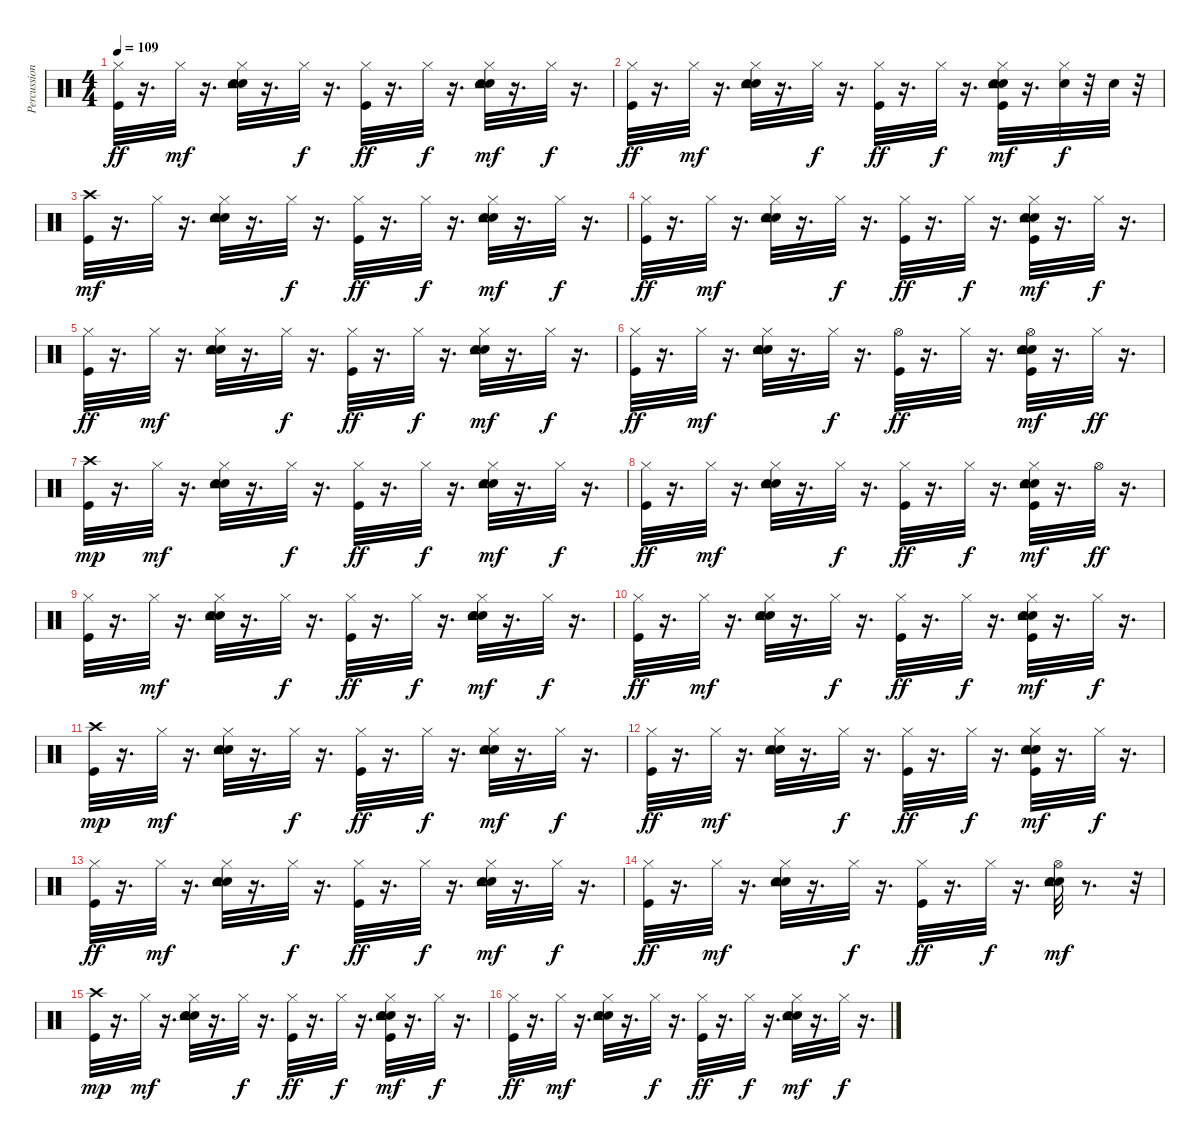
\track ("Percussion" "Percussion") {instrument percussion}
\staff {score}
\articulation defaults
\ts (4 4)
\tempo 109
\clef neutral
\ks c
("Kick (hit)" "Hi-Hat (closed)").32{dy ff} r.16{d} "Hi-Hat (closed)".32{dy mf} r.16{d} ("Snare (hit) 2" "Hand Clap (hit)" "Hi-Hat (closed)" "Tambourine (hit)").32 r.16{d} "Hi-Hat (closed)".32{dy f} r.16{d} ("Kick (hit)" "Hi-Hat (closed)").32{dy ff} r.16{d} "Hi-Hat (closed)".32{dy f} r.16{d} ("Snare (hit) 2" "Hand Clap (hit)" "Hi-Hat (closed)" "Tambourine (hit)").32{dy mf} r.16{d} "Hi-Hat (closed)".32{dy f} r.16{d} |
("Kick (hit)" "Hi-Hat (closed)").32{dy ff} r.16{d} "Hi-Hat (closed)".32{dy mf} r.16{d} ("Snare (hit) 2" "Hand Clap (hit)" "Hi-Hat (closed)" "Tambourine (hit)").32 r.16{d} "Hi-Hat (closed)".32{dy f} r.16{d} ("Kick (hit)" "Hi-Hat (closed)").32{dy ff} r.16{d} "Hi-Hat (closed)".32{dy f} r.16{d} ("Kick (hit)" "Snare (hit) 2" "Hand Clap (hit)" "Hi-Hat (closed)" "Tambourine (hit)").32{dy mf} r.16{d} ("Snare (hit) 2" "Hi-Hat (closed)").32{dy f} r.32 "Snare (hit) 2".32 r.32 |
("Kick (hit)" "Crash high (hit)").32{dy mf} r.16{d} "Hi-Hat (closed)".32 r.16{d} ("Snare (hit) 2" "Hand Clap (hit)" "Hi-Hat (closed)" "Tambourine (hit)").32 r.16{d} "Hi-Hat (closed)".32{dy f} r.16{d} ("Kick (hit)" "Hi-Hat (closed)").32{dy ff} r.16{d} "Hi-Hat (closed)".32{dy f} r.16{d} ("Snare (hit) 2" "Hand Clap (hit)" "Hi-Hat (closed)" "Tambourine (hit)").32{dy mf} r.16{d} "Hi-Hat (closed)".32{dy f} r.16{d} |
("Kick (hit)" "Hi-Hat (closed)").32{dy ff} r.16{d} "Hi-Hat (closed)".32{dy mf} r.16{d} ("Snare (hit) 2" "Hand Clap (hit)" "Hi-Hat (closed)" "Tambourine (hit)").32 r.16{d} "Hi-Hat (closed)".32{dy f} r.16{d} ("Kick (hit)" "Hi-Hat (closed)").32{dy ff} r.16{d} "Hi-Hat (closed)".32{dy f} r.16{d} ("Kick (hit)" "Snare (hit) 2" "Hand Clap (hit)" "Hi-Hat (closed)" "Tambourine (hit)").32{dy mf} r.16{d} "Hi-Hat (closed)".32{dy f} r.16{d} |
("Kick (hit)" "Hi-Hat (closed)").32{dy ff} r.16{d} "Hi-Hat (closed)".32{dy mf} r.16{d} ("Snare (hit) 2" "Hand Clap (hit)" "Hi-Hat (closed)" "Tambourine (hit)").32 r.16{d} "Hi-Hat (closed)".32{dy f} r.16{d} ("Kick (hit)" "Hi-Hat (closed)").32{dy ff} r.16{d} "Hi-Hat (closed)".32{dy f} r.16{d} ("Snare (hit) 2" "Hand Clap (hit)" "Hi-Hat (closed)" "Tambourine (hit)").32{dy mf} r.16{d} "Hi-Hat (closed)".32{dy f} r.16{d} |
("Kick (hit)" "Hi-Hat (closed)").32{dy ff} r.16{d} "Hi-Hat (closed)".32{dy mf} r.16{d} ("Snare (hit) 2" "Hand Clap (hit)" "Hi-Hat (closed)" "Tambourine (hit)").32 r.16{d} "Hi-Hat (closed)".32{dy f} r.16{d} ("Kick (hit)" "Hi-Hat (open)").32{dy ff} r.16{d} "Hi-Hat (closed)".32 r.16{d} ("Kick (hit)" "Snare (hit) 2" "Hand Clap (hit)" "Hi-Hat (open)" "Tambourine (hit)").32{dy mf} r.16{d} "Hi-Hat (closed)".32{dy ff} r.16{d} |
("Kick (hit)" "Crash high (hit)").32{dy mp} r.16{d} "Hi-Hat (closed)".32{dy mf} r.16{d} ("Snare (hit) 2" "Hand Clap (hit)" "Hi-Hat (closed)" "Tambourine (hit)").32 r.16{d} "Hi-Hat (closed)".32{dy f} r.16{d} ("Kick (hit)" "Hi-Hat (closed)").32{dy ff} r.16{d} "Hi-Hat (closed)".32{dy f} r.16{d} ("Snare (hit) 2" "Hand Clap (hit)" "Hi-Hat (closed)" "Tambourine (hit)").32{dy mf} r.16{d} "Hi-Hat (closed)".32{dy f} r.16{d} |
("Kick (hit)" "Hi-Hat (closed)").32{dy ff} r.16{d} "Hi-Hat (closed)".32{dy mf} r.16{d} ("Snare (hit) 2" "Hand Clap (hit)" "Hi-Hat (closed)" "Tambourine (hit)").32 r.16{d} "Hi-Hat (closed)".32{dy f} r.16{d} ("Kick (hit)" "Hi-Hat (closed)").32{dy ff} r.16{d} "Hi-Hat (closed)".32{dy f} r.16{d} ("Kick (hit)" "Snare (hit) 2" "Hand Clap (hit)" "Hi-Hat (closed)" "Tambourine (hit)").32{dy mf} r.16{d} "Hi-Hat (open)".32{dy ff} r.16{d} |
("Kick (hit)" "Hi-Hat (closed)").32 r.16{d} "Hi-Hat (closed)".32{dy mf} r.16{d} ("Snare (hit) 2" "Hand Clap (hit)" "Hi-Hat (closed)" "Tambourine (hit)").32 r.16{d} "Hi-Hat (closed)".32{dy f} r.16{d} ("Kick (hit)" "Hi-Hat (closed)").32{dy ff} r.16{d} "Hi-Hat (closed)".32{dy f} r.16{d} ("Snare (hit) 2" "Hand Clap (hit)" "Hi-Hat (closed)" "Tambourine (hit)").32{dy mf} r.16{d} "Hi-Hat (closed)".32{dy f} r.16{d} |
("Kick (hit)" "Hi-Hat (closed)").32{dy ff} r.16{d} "Hi-Hat (closed)".32{dy mf} r.16{d} ("Snare (hit) 2" "Hand Clap (hit)" "Hi-Hat (closed)" "Tambourine (hit)").32 r.16{d} "Hi-Hat (closed)".32{dy f} r.16{d} ("Kick (hit)" "Hi-Hat (closed)").32{dy ff} r.16{d} "Hi-Hat (closed)".32{dy f} r.16{d} ("Kick (hit)" "Snare (hit) 2" "Hand Clap (hit)" "Hi-Hat (closed)" "Tambourine (hit)").32{dy mf} r.16{d} "Hi-Hat (closed)".32{dy f} r.16{d} |
("Kick (hit)" "Crash high (hit)").32{dy mp} r.16{d} "Hi-Hat (closed)".32{dy mf} r.16{d} ("Snare (hit) 2" "Hand Clap (hit)" "Hi-Hat (closed)" "Tambourine (hit)").32 r.16{d} "Hi-Hat (closed)".32{dy f} r.16{d} ("Kick (hit)" "Hi-Hat (closed)").32{dy ff} r.16{d} "Hi-Hat (closed)".32{dy f} r.16{d} ("Snare (hit) 2" "Hand Clap (hit)" "Hi-Hat (closed)" "Tambourine (hit)").32{dy mf} r.16{d} "Hi-Hat (closed)".32{dy f} r.16{d} |
("Kick (hit)" "Hi-Hat (closed)").32{dy ff} r.16{d} "Hi-Hat (closed)".32{dy mf} r.16{d} ("Snare (hit) 2" "Hand Clap (hit)" "Hi-Hat (closed)" "Tambourine (hit)").32 r.16{d} "Hi-Hat (closed)".32{dy f} r.16{d} ("Kick (hit)" "Hi-Hat (closed)").32{dy ff} r.16{d} "Hi-Hat (closed)".32{dy f} r.16{d} ("Kick (hit)" "Snare (hit) 2" "Hand Clap (hit)" "Hi-Hat (closed)" "Tambourine (hit)").32{dy mf} r.16{d} "Hi-Hat (closed)".32{dy f} r.16{d} |
("Kick (hit)" "Hi-Hat (closed)").32{dy ff} r.16{d} "Hi-Hat (closed)".32{dy mf} r.16{d} ("Snare (hit) 2" "Hand Clap (hit)" "Hi-Hat (closed)" "Tambourine (hit)").32 r.16{d} "Hi-Hat (closed)".32{dy f} r.16{d} ("Kick (hit)" "Hi-Hat (closed)").32{dy ff} r.16{d} "Hi-Hat (closed)".32{dy f} r.16{d} ("Snare (hit) 2" "Hand Clap (hit)" "Hi-Hat (closed)" "Tambourine (hit)").32{dy mf} r.16{d} "Hi-Hat (closed)".32{dy f} r.16{d} |
("Kick (hit)" "Hi-Hat (closed)").32{dy ff} r.16{d} "Hi-Hat (closed)".32{dy mf} r.16{d} ("Snare (hit) 2" "Hand Clap (hit)" "Hi-Hat (closed)" "Tambourine (hit)").32 r.16{d} "Hi-Hat (closed)".32{dy f} r.16{d} ("Kick (hit)" "Hi-Hat (closed)").32{dy ff} r.16{d} "Hi-Hat (closed)".32{dy f} r.16{d} ("Snare (hit) 2" "Hand Clap (hit)" "Hi-Hat (open)" "Tambourine (hit)").32{dy mf} r.8{d} r.32 |
("Kick (hit)" "Crash high (hit)").32{dy mp} r.16{d} "Hi-Hat (closed)".32{dy mf} r.16{d} ("Snare (hit) 2" "Hand Clap (hit)" "Hi-Hat (closed)" "Tambourine (hit)").32 r.16{d} "Hi-Hat (closed)".32{dy f} r.16{d} ("Kick (hit)" "Hi-Hat (closed)").32{dy ff} r.16{d} "Hi-Hat (closed)".32{dy f} r.16{d} ("Kick (hit)" "Snare (hit) 2" "Hand Clap (hit)" "Hi-Hat (closed)" "Tambourine (hit)").32{dy mf} r.16{d} "Hi-Hat (closed)".32{dy f} r.16{d} |
("Kick (hit)" "Hi-Hat (closed)").32{dy ff} r.16{d} "Hi-Hat (closed)".32{dy mf} r.16{d} ("Snare (hit) 2" "Hand Clap (hit)" "Hi-Hat (closed)" "Tambourine (hit)").32 r.16{d} "Hi-Hat (closed)".32{dy f} r.16{d} ("Kick (hit)" "Hi-Hat (closed)").32{dy ff} r.16{d} "Hi-Hat (closed)".32{dy f} r.16{d} ("Snare (hit) 2" "Hand Clap (hit)" "Hi-Hat (closed)" "Tambourine (hit)").32{dy mf} r.16{d} "Hi-Hat (closed)".32{dy f} r.16{d}
